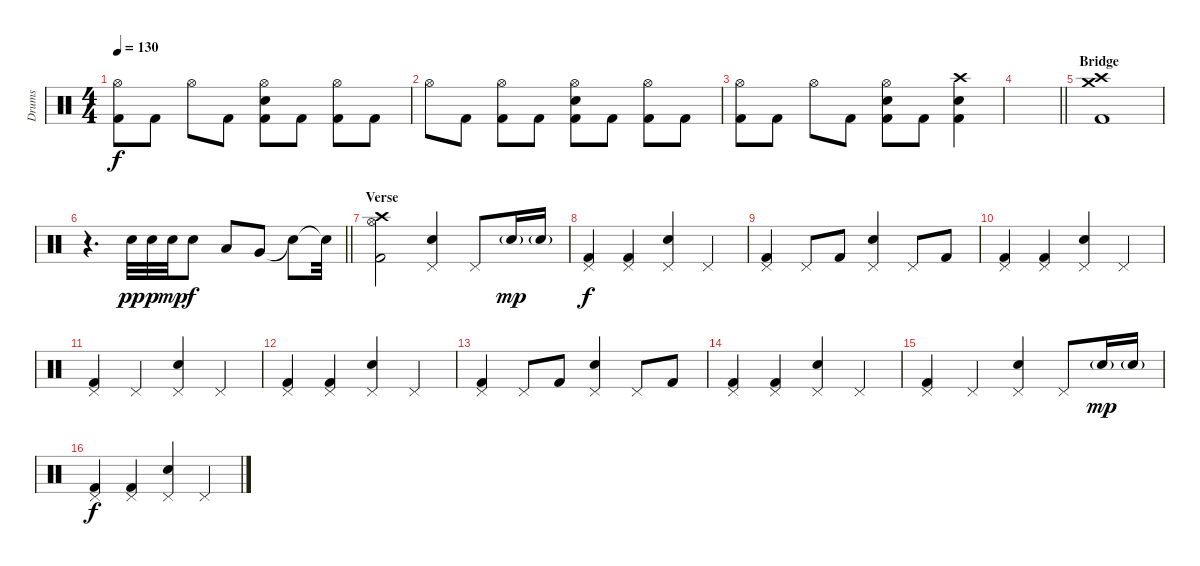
\track ("Drums" "Drums") {instrument percussion}
\staff {score}
\articulation defaults
\ts (4 4)
\tempo 130
\clef neutral
\ks c
("Hi-Hat (open)" "Kick (hit) 2").8{dy f} "Kick (hit) 2".8 "Hi-Hat (open)".8 "Kick (hit) 2".8 ("Hi-Hat (open)" "Electric Snare (hit)" "Kick (hit) 2").8 "Kick (hit) 2".8 ("Hi-Hat (open)" "Kick (hit) 2").8 "Kick (hit) 2".8 |
"Hi-Hat (open)".8 "Kick (hit) 2".8 ("Hi-Hat (open)" "Kick (hit) 2").8 "Kick (hit) 2".8 ("Hi-Hat (open)" "Electric Snare (hit)" "Kick (hit) 2").8 "Kick (hit) 2".8 ("Hi-Hat (open)" "Kick (hit) 2").8 "Kick (hit) 2".8 |
("Hi-Hat (open)" "Kick (hit) 2").8 "Kick (hit) 2".8 "Hi-Hat (open)".8 "Kick (hit) 2".8 ("Hi-Hat (open)" "Electric Snare (hit)" "Kick (hit) 2").8 "Kick (hit) 2".8 ("Crash high (hit)" "Electric Snare (hit)" "Kick (hit) 2").4 |
\barLineRight lightlight
|
\section ("" "Bridge")
("Crash medium (hit)" "Crash high (hit)" "Kick (hit) 2").1 |
\barLineRight lightlight
r.4{d} "Snare (hit) 2".32{dy pp} "Snare (hit) 2".32{dy p} "Snare (hit) 2".32{dy mp} "Snare (hit) 2".8{dy f} "Low Tom (hit)".8 "Very Low Tom (hit)".8 "Snare (hit)"{t}.8 "Snare (hit)"{t}.32 |
\section ("" "Verse")
("Crash high (hit)" "Hi-Hat (open)" "Kick (hit) 2").2 ("Pedal Hi-Hat (hit)" "Electric Snare (hit)").4 "Pedal Hi-Hat (hit)".8 "Electric Snare (hit)"{g}.16{dy mp} "Electric Snare (hit)"{g}.16 |
("Pedal Hi-Hat (hit)" "Kick (hit) 2").4{dy f} ("Pedal Hi-Hat (hit)" "Kick (hit) 2").4 ("Pedal Hi-Hat (hit)" "Electric Snare (hit)").4 "Pedal Hi-Hat (hit)".4 |
("Pedal Hi-Hat (hit)" "Kick (hit) 2").4 "Pedal Hi-Hat (hit)".8 "Kick (hit) 2".8 ("Pedal Hi-Hat (hit)" "Electric Snare (hit)").4 "Pedal Hi-Hat (hit)".8 "Kick (hit) 2".8 |
("Pedal Hi-Hat (hit)" "Kick (hit) 2").4 ("Pedal Hi-Hat (hit)" "Kick (hit) 2").4 ("Pedal Hi-Hat (hit)" "Electric Snare (hit)").4 "Pedal Hi-Hat (hit)".4 |
("Pedal Hi-Hat (hit)" "Kick (hit) 2").4 "Pedal Hi-Hat (hit)".4 ("Pedal Hi-Hat (hit)" "Electric Snare (hit)").4 "Pedal Hi-Hat (hit)".4 |
("Pedal Hi-Hat (hit)" "Kick (hit) 2").4 ("Pedal Hi-Hat (hit)" "Kick (hit) 2").4 ("Pedal Hi-Hat (hit)" "Electric Snare (hit)").4 "Pedal Hi-Hat (hit)".4 |
("Pedal Hi-Hat (hit)" "Kick (hit) 2").4 "Pedal Hi-Hat (hit)".8 "Kick (hit) 2".8 ("Pedal Hi-Hat (hit)" "Electric Snare (hit)").4 "Pedal Hi-Hat (hit)".8 "Kick (hit) 2".8 |
("Pedal Hi-Hat (hit)" "Kick (hit) 2").4 ("Pedal Hi-Hat (hit)" "Kick (hit) 2").4 ("Pedal Hi-Hat (hit)" "Electric Snare (hit)").4 "Pedal Hi-Hat (hit)".4 |
("Pedal Hi-Hat (hit)" "Kick (hit) 2").4 "Pedal Hi-Hat (hit)".4 ("Pedal Hi-Hat (hit)" "Electric Snare (hit)").4 "Pedal Hi-Hat (hit)".8 "Electric Snare (hit)"{g}.16{dy mp} "Electric Snare (hit)"{g}.16 |
("Pedal Hi-Hat (hit)" "Kick (hit) 2").4{dy f} ("Pedal Hi-Hat (hit)" "Kick (hit) 2").4 ("Pedal Hi-Hat (hit)" "Electric Snare (hit)").4 "Pedal Hi-Hat (hit)".4
